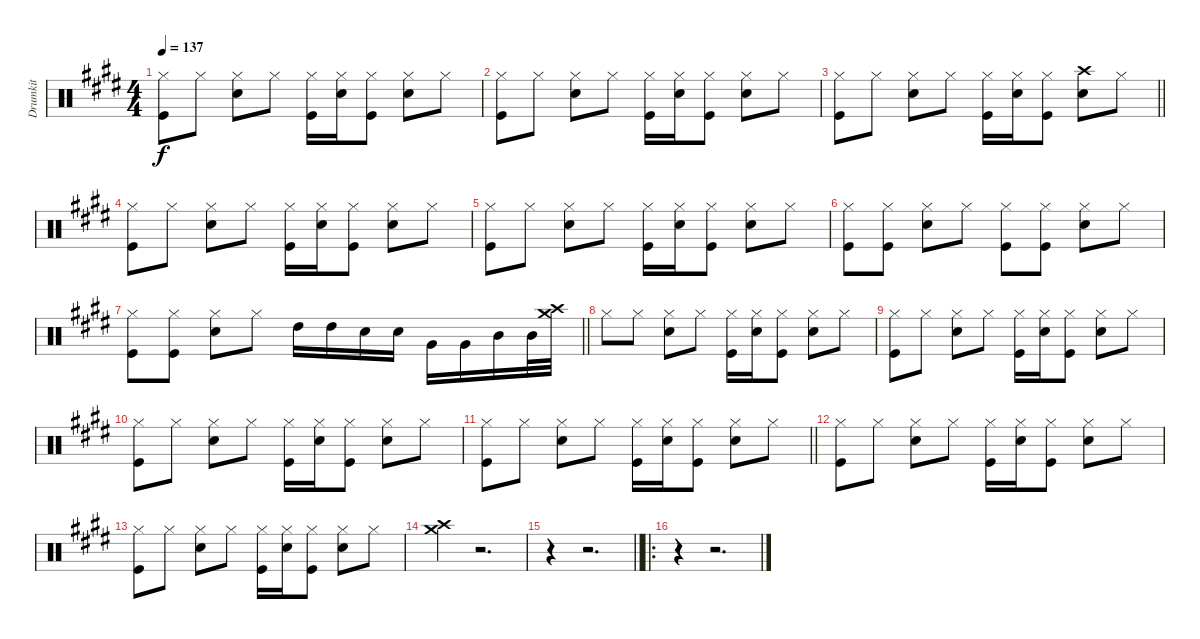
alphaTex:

\track ("Drumkit" "Drumkit") {instrument percussion}
\staff {score}
\articulation defaults
\ts (4 4)
\tempo 137
\clef neutral
\ks e
("Hi-Hat (closed)" "Kick (hit)").8{dy f} "Hi-Hat (closed)".8 ("Hi-Hat (closed)" "Snare (hit) 2").8 "Hi-Hat (closed)".8 ("Hi-Hat (closed)" "Kick (hit)").16 ("Hi-Hat (closed)" "Snare (hit) 2").16 ("Hi-Hat (closed)" "Kick (hit)").8 ("Hi-Hat (closed)" "Snare (hit) 2").8 "Hi-Hat (closed)".8 |
("Hi-Hat (closed)" "Kick (hit)").8 "Hi-Hat (closed)".8 ("Hi-Hat (closed)" "Snare (hit) 2").8 "Hi-Hat (closed)".8 ("Hi-Hat (closed)" "Kick (hit)").16 ("Hi-Hat (closed)" "Snare (hit) 2").16 ("Hi-Hat (closed)" "Kick (hit)").8 ("Hi-Hat (closed)" "Snare (hit) 2").8 "Hi-Hat (closed)".8 |
\barLineRight lightlight
("Hi-Hat (closed)" "Kick (hit)").8 "Hi-Hat (closed)".8 ("Hi-Hat (closed)" "Snare (hit) 2").8 "Hi-Hat (closed)".8 ("Hi-Hat (closed)" "Kick (hit)").16 ("Hi-Hat (closed)" "Snare (hit) 2").16 ("Hi-Hat (closed)" "Kick (hit)").8 ("Snare (hit) 2" "Crash high (hit)").8 "Hi-Hat (closed)".8 |
("Hi-Hat (closed)" "Kick (hit)").8 "Hi-Hat (closed)".8 ("Hi-Hat (closed)" "Snare (hit) 2").8 "Hi-Hat (closed)".8 ("Hi-Hat (closed)" "Kick (hit)").16 ("Hi-Hat (closed)" "Snare (hit) 2").16 ("Hi-Hat (closed)" "Kick (hit)").8 ("Hi-Hat (closed)" "Snare (hit) 2").8 "Hi-Hat (closed)".8 |
("Hi-Hat (closed)" "Kick (hit)").8 "Hi-Hat (closed)".8 ("Hi-Hat (closed)" "Snare (hit) 2").8 "Hi-Hat (closed)".8 ("Hi-Hat (closed)" "Kick (hit)").16 ("Hi-Hat (closed)" "Snare (hit) 2").16 ("Hi-Hat (closed)" "Kick (hit)").8 ("Hi-Hat (closed)" "Snare (hit) 2").8 "Hi-Hat (closed)".8 |
("Hi-Hat (closed)" "Kick (hit)").8 ("Hi-Hat (closed)" "Kick (hit)").8 ("Hi-Hat (closed)" "Snare (hit) 2").8 "Hi-Hat (closed)".8 ("Hi-Hat (closed)" "Kick (hit)").8 ("Hi-Hat (closed)" "Kick (hit)").8 ("Hi-Hat (closed)" "Snare (hit) 2").8 "Hi-Hat (closed)".8 |
\barLineRight lightlight
("Hi-Hat (closed)" "Kick (hit)").8 ("Hi-Hat (closed)" "Kick (hit)").8 ("Hi-Hat (closed)" "Snare (hit) 2").8 "Hi-Hat (closed)".8 "High Tom (hit)".16 "High Tom (hit)".16 "Snare (hit) 2".16 "Snare (hit) 2".16 "Very Low Tom (hit)".16 "Very Low Tom (hit)".16 "Mid Tom (hit)".16 "Mid Tom (hit)".32 ("Crash high (hit)" "Crash medium (hit)").32 |
"Hi-Hat (closed)".8 "Hi-Hat (closed)".8 ("Hi-Hat (closed)" "Snare (hit) 2").8 "Hi-Hat (closed)".8 ("Hi-Hat (closed)" "Kick (hit)").16 ("Hi-Hat (closed)" "Snare (hit) 2").16 ("Hi-Hat (closed)" "Kick (hit)").8 ("Hi-Hat (closed)" "Snare (hit) 2").8 "Hi-Hat (closed)".8 |
("Hi-Hat (closed)" "Kick (hit)").8 "Hi-Hat (closed)".8 ("Hi-Hat (closed)" "Snare (hit) 2").8 "Hi-Hat (closed)".8 ("Hi-Hat (closed)" "Kick (hit)").16 ("Hi-Hat (closed)" "Snare (hit) 2").16 ("Hi-Hat (closed)" "Kick (hit)").8 ("Hi-Hat (closed)" "Snare (hit) 2").8 "Hi-Hat (closed)".8 |
("Hi-Hat (closed)" "Kick (hit)").8 "Hi-Hat (closed)".8 ("Hi-Hat (closed)" "Snare (hit) 2").8 "Hi-Hat (closed)".8 ("Hi-Hat (closed)" "Kick (hit)").16 ("Hi-Hat (closed)" "Snare (hit) 2").16 ("Hi-Hat (closed)" "Kick (hit)").8 ("Hi-Hat (closed)" "Snare (hit) 2").8 "Hi-Hat (closed)".8 |
\barLineRight lightlight
("Hi-Hat (closed)" "Kick (hit)").8 "Hi-Hat (closed)".8 ("Hi-Hat (closed)" "Snare (hit) 2").8 "Hi-Hat (closed)".8 ("Hi-Hat (closed)" "Kick (hit)").16 ("Hi-Hat (closed)" "Snare (hit) 2").16 ("Hi-Hat (closed)" "Kick (hit)").8 ("Hi-Hat (closed)" "Snare (hit) 2").8 "Hi-Hat (closed)".8 |
("Hi-Hat (closed)" "Kick (hit)").8 "Hi-Hat (closed)".8 ("Hi-Hat (closed)" "Snare (hit) 2").8 "Hi-Hat (closed)".8 ("Hi-Hat (closed)" "Kick (hit)").16 ("Hi-Hat (closed)" "Snare (hit) 2").16 ("Hi-Hat (closed)" "Kick (hit)").8 ("Hi-Hat (closed)" "Snare (hit) 2").8 "Hi-Hat (closed)".8 |
("Hi-Hat (closed)" "Kick (hit)").8 "Hi-Hat (closed)".8 ("Hi-Hat (closed)" "Snare (hit) 2").8 "Hi-Hat (closed)".8 ("Hi-Hat (closed)" "Kick (hit)").16 ("Hi-Hat (closed)" "Snare (hit) 2").16 ("Hi-Hat (closed)" "Kick (hit)").8 ("Hi-Hat (closed)" "Snare (hit) 2").8 "Hi-Hat (closed)".8 |
("Crash high (hit)" "Crash medium (hit)").4 r.2{d} |
\barLineRight lightlight
r.4 r.2{d} |
\ro
r.4 r.2{d}
